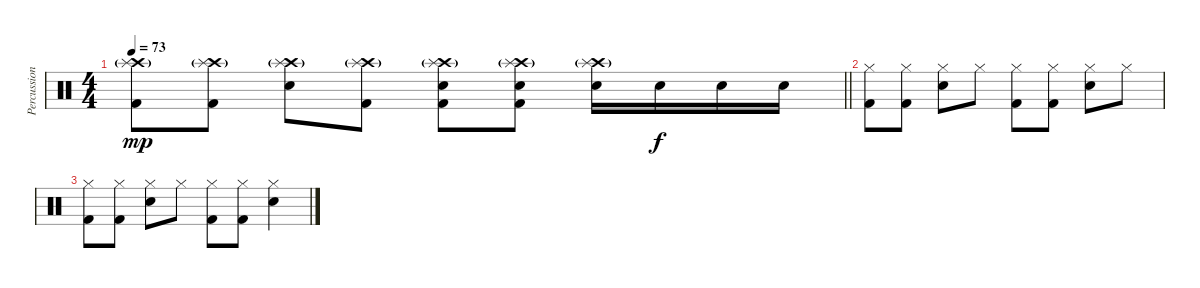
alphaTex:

\track ("Percussions" "Percussion") {instrument percussion}
\staff {score}
\articulation defaults
\ts (4 4)
\tempo 73
\clef neutral
\barLineRight lightlight
\ks c
("Crash high (hit)"{g} "Splash (hit)" "Kick (hit) 2").8{dy mp} ("Crash high (hit)"{g} "Splash (hit)" "Kick (hit) 2").8 ("Crash high (hit)"{g} "Splash (hit)" "Snare (hit) 2").8 ("Crash high (hit)"{g} "Splash (hit)" "Kick (hit) 2").8 ("Crash high (hit)"{g} "Splash (hit)" "Electric Snare (hit)" "Kick (hit) 2").8 ("Crash high (hit)"{g} "Splash (hit)" "Electric Snare (hit)" "Kick (hit) 2").8 ("Crash high (hit)"{g} "Splash (hit)" "Electric Snare (hit)").16 "Electric Snare (hit)".16{dy f} "Electric Snare (hit)".16 "Electric Snare (hit)".16 |
("Hi-Hat (closed)" "Kick (hit) 2").8 ("Hi-Hat (closed)" "Kick (hit) 2").8 ("Hi-Hat (closed)" "Snare (hit) 2").8 "Hi-Hat (closed)".8 ("Hi-Hat (closed)" "Kick (hit) 2").8 ("Hi-Hat (closed)" "Kick (hit) 2").8 ("Hi-Hat (closed)" "Snare (hit) 2").8 "Hi-Hat (closed)".8 |
("Hi-Hat (closed)" "Kick (hit) 2").8 ("Hi-Hat (closed)" "Kick (hit) 2").8 ("Hi-Hat (closed)" "Snare (hit) 2").8 "Hi-Hat (closed)".8 ("Hi-Hat (closed)" "Kick (hit) 2").8 ("Hi-Hat (closed)" "Kick (hit) 2").8 ("Hi-Hat (closed)" "Snare (hit) 2").4
